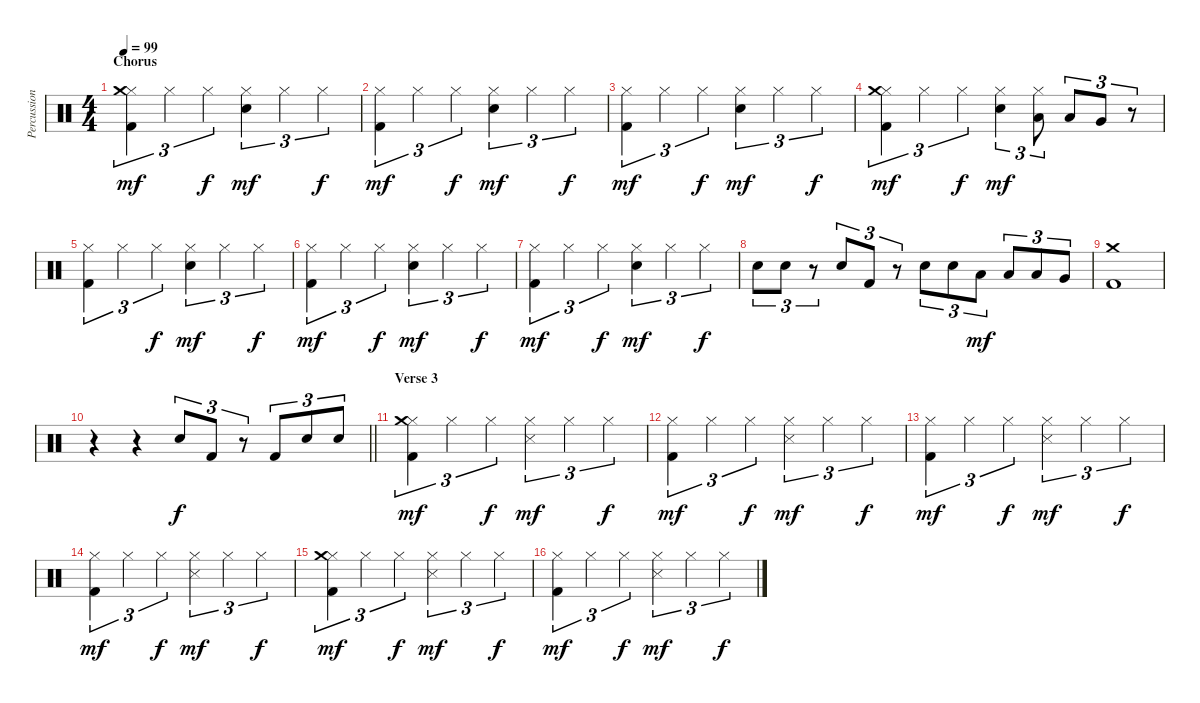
\track ("Percussion" "Percussion") {instrument percussion}
\staff {score}
\articulation defaults
\ts (4 4)
\section ("" "Chorus")
\tempo 99
\clef neutral
\ks c
("Hi-Hat (closed)" "Crash medium (hit)" "Kick (hit) 2").4{tu (3 2) dy mf} "Hi-Hat (closed)".4{tu (3 2)} "Hi-Hat (closed)".4{tu (3 2) dy f} ("Hi-Hat (closed)" "Electric Snare (hit)").4{tu (3 2) dy mf} "Hi-Hat (closed)".4{tu (3 2)} "Hi-Hat (closed)".4{tu (3 2) dy f} |
("Hi-Hat (closed)" "Kick (hit) 2").4{tu (3 2) dy mf} "Hi-Hat (closed)".4{tu (3 2)} "Hi-Hat (closed)".4{tu (3 2) dy f} ("Hi-Hat (closed)" "Electric Snare (hit)").4{tu (3 2) dy mf} "Hi-Hat (closed)".4{tu (3 2)} "Hi-Hat (closed)".4{tu (3 2) dy f} |
("Hi-Hat (closed)" "Kick (hit) 2").4{tu (3 2) dy mf} "Hi-Hat (closed)".4{tu (3 2)} "Hi-Hat (closed)".4{tu (3 2) dy f} ("Hi-Hat (closed)" "Electric Snare (hit)").4{tu (3 2) dy mf} "Hi-Hat (closed)".4{tu (3 2)} "Hi-Hat (closed)".4{tu (3 2) dy f} |
("Hi-Hat (closed)" "Crash medium (hit)" "Kick (hit) 2").4{tu (3 2) dy mf} "Hi-Hat (closed)".4{tu (3 2)} "Hi-Hat (closed)".4{tu (3 2) dy f} ("Hi-Hat (closed)" "Electric Snare (hit)").4{tu (3 2) dy mf} ("Hi-Hat (closed)" "Low Tom (hit)").8{tu (3 2)} "Low Tom (hit)".8{tu (3 2)} "Very Low Tom (hit)".8{tu (3 2)} r.8{tu (3 2)} |
("Hi-Hat (closed)" "Kick (hit) 2").4{tu (3 2)} "Hi-Hat (closed)".4{tu (3 2)} "Hi-Hat (closed)".4{tu (3 2) dy f} ("Hi-Hat (closed)" "Electric Snare (hit)").4{tu (3 2) dy mf} "Hi-Hat (closed)".4{tu (3 2)} "Hi-Hat (closed)".4{tu (3 2) dy f} |
("Hi-Hat (closed)" "Kick (hit) 2").4{tu (3 2) dy mf} "Hi-Hat (closed)".4{tu (3 2)} "Hi-Hat (closed)".4{tu (3 2) dy f} ("Hi-Hat (closed)" "Electric Snare (hit)").4{tu (3 2) dy mf} "Hi-Hat (closed)".4{tu (3 2)} "Hi-Hat (closed)".4{tu (3 2) dy f} |
("Hi-Hat (closed)" "Kick (hit) 2").4{tu (3 2) dy mf} "Hi-Hat (closed)".4{tu (3 2)} "Hi-Hat (closed)".4{tu (3 2) dy f} ("Hi-Hat (closed)" "Electric Snare (hit)").4{tu (3 2) dy mf} "Hi-Hat (closed)".4{tu (3 2)} "Hi-Hat (closed)".4{tu (3 2) dy f} |
"Electric Snare (hit)".8{tu (3 2)} "Electric Snare (hit)".8{tu (3 2)} r.8{tu (3 2)} "Electric Snare (hit)".8{tu (3 2)} "Kick (hit) 2".8{tu (3 2)} r.8{tu (3 2)} "Electric Snare (hit)".8{tu (3 2)} "Electric Snare (hit)".8{tu (3 2)} "Low Tom (hit)".8{tu (3 2) dy mf} "Low Tom (hit)".8{tu (3 2)} "Low Tom (hit)".8{tu (3 2)} "Very Low Tom (hit)".8{tu (3 2)} |
("Crash medium (hit)" "Kick (hit) 2").1 |
\barLineRight lightlight
r.4 r.4 "Electric Snare (hit)".8{tu (3 2) dy f} "Kick (hit) 2".8{tu (3 2)} r.8{tu (3 2)} "Kick (hit) 2".8{tu (3 2)} "Electric Snare (hit)".8{tu (3 2)} "Electric Snare (hit)".8{tu (3 2)} |
\section ("" "Verse 3")
("Hi-Hat (closed)" "Crash medium (hit)" "Kick (hit) 2").4{tu (3 2) dy mf} "Hi-Hat (closed)".4{tu (3 2)} "Hi-Hat (closed)".4{tu (3 2) dy f} ("Hi-Hat (closed)" "Snare (side stick) 3").4{tu (3 2) dy mf} "Hi-Hat (closed)".4{tu (3 2)} "Hi-Hat (closed)".4{tu (3 2) dy f} |
("Hi-Hat (closed)" "Kick (hit) 2").4{tu (3 2) dy mf} "Hi-Hat (closed)".4{tu (3 2)} "Hi-Hat (closed)".4{tu (3 2) dy f} ("Hi-Hat (closed)" "Snare (side stick) 3").4{tu (3 2) dy mf} "Hi-Hat (closed)".4{tu (3 2)} "Hi-Hat (closed)".4{tu (3 2) dy f} |
("Hi-Hat (closed)" "Kick (hit) 2").4{tu (3 2) dy mf} "Hi-Hat (closed)".4{tu (3 2)} "Hi-Hat (closed)".4{tu (3 2) dy f} ("Hi-Hat (closed)" "Snare (side stick) 3").4{tu (3 2) dy mf} "Hi-Hat (closed)".4{tu (3 2)} "Hi-Hat (closed)".4{tu (3 2) dy f} |
("Hi-Hat (closed)" "Kick (hit) 2").4{tu (3 2) dy mf} "Hi-Hat (closed)".4{tu (3 2)} "Hi-Hat (closed)".4{tu (3 2) dy f} ("Hi-Hat (closed)" "Snare (side stick) 3").4{tu (3 2) dy mf} "Hi-Hat (closed)".4{tu (3 2)} "Hi-Hat (closed)".4{tu (3 2) dy f} |
("Hi-Hat (closed)" "Crash medium (hit)" "Kick (hit) 2").4{tu (3 2) dy mf} "Hi-Hat (closed)".4{tu (3 2)} "Hi-Hat (closed)".4{tu (3 2) dy f} ("Hi-Hat (closed)" "Snare (side stick) 3").4{tu (3 2) dy mf} "Hi-Hat (closed)".4{tu (3 2)} "Hi-Hat (closed)".4{tu (3 2) dy f} |
("Hi-Hat (closed)" "Kick (hit) 2").4{tu (3 2) dy mf} "Hi-Hat (closed)".4{tu (3 2)} "Hi-Hat (closed)".4{tu (3 2) dy f} ("Hi-Hat (closed)" "Snare (side stick) 3").4{tu (3 2) dy mf} "Hi-Hat (closed)".4{tu (3 2)} "Hi-Hat (closed)".4{tu (3 2) dy f}
